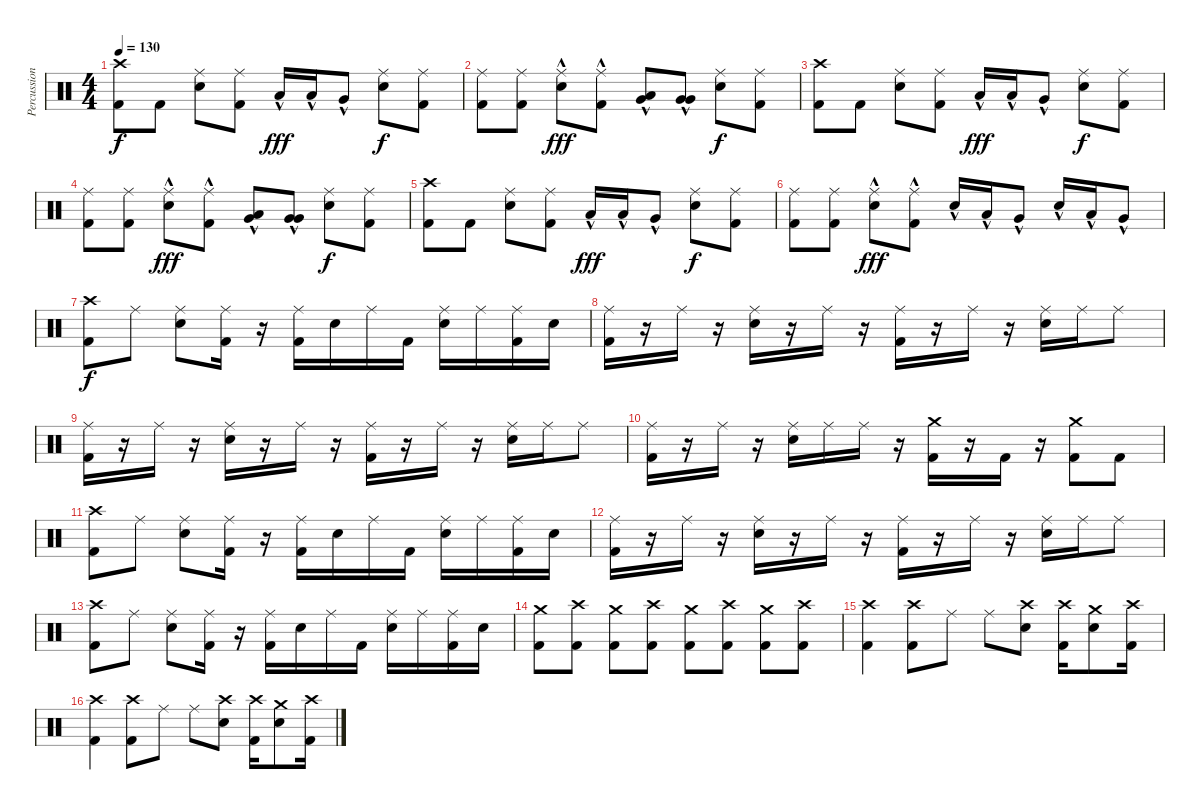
\track ("Percussion" "Percussion") {instrument percussion}
\staff {score}
\articulation defaults
\ts (4 4)
\tempo 130
\clef neutral
\ks c
("Crash high (hit)" "Kick (hit) 2").8{dy f} "Kick (hit) 2".8 ("Ride (middle)" "Snare (hit) 2").8 ("Ride (middle)" "Kick (hit) 2").8 "Low Tom (hit)"{hac}.16{dy fff} "Low Tom (hit)"{hac}.16 "Very Low Tom (hit)"{hac}.8 ("Ride (middle)" "Snare (hit) 2").8{dy f} ("Ride (middle)" "Kick (hit) 2").8 |
("Ride (middle)" "Kick (hit) 2").8 ("Ride (middle)" "Kick (hit) 2").8 ("Ride (middle)" "Snare (hit) 2"{hac}).8{dy fff} ("Ride (middle)" "Kick (hit) 2"{hac}).8 ("Very Low Tom (hit)" "Low Tom (hit)"{hac}).8 ("Very Low Tom (hit)" "Very Low Tom (hit)"{hac}).8 ("Ride (middle)" "Snare (hit) 2").8{dy f} ("Ride (middle)" "Kick (hit) 2").8 |
("Crash high (hit)" "Kick (hit) 2").8 "Kick (hit) 2".8 ("Ride (middle)" "Snare (hit) 2").8 ("Ride (middle)" "Kick (hit) 2").8 "Low Tom (hit)"{hac}.16{dy fff} "Low Tom (hit)"{hac}.16 "Very Low Tom (hit)"{hac}.8 ("Ride (middle)" "Snare (hit) 2").8{dy f} ("Ride (middle)" "Kick (hit) 2").8 |
("Ride (middle)" "Kick (hit) 2").8 ("Ride (middle)" "Kick (hit) 2").8 ("Ride (middle)" "Snare (hit) 2"{hac}).8{dy fff} ("Ride (middle)" "Kick (hit) 2"{hac}).8 ("Very Low Tom (hit)" "Low Tom (hit)"{hac}).8 ("Very Low Tom (hit)" "Very Low Tom (hit)"{hac}).8 ("Ride (middle)" "Snare (hit) 2").8{dy f} ("Ride (middle)" "Kick (hit) 2").8 |
("Crash high (hit)" "Kick (hit) 2").8 "Kick (hit) 2".8 ("Ride (middle)" "Snare (hit) 2").8 ("Ride (middle)" "Kick (hit) 2").8 "Low Tom (hit)"{hac}.16{dy fff} "Low Tom (hit)"{hac}.16 "Very Low Tom (hit)"{hac}.8 ("Ride (middle)" "Snare (hit) 2").8{dy f} ("Ride (middle)" "Kick (hit) 2").8 |
("Ride (middle)" "Kick (hit) 2").8 ("Ride (middle)" "Kick (hit) 2").8 ("Ride (middle)" "Snare (hit) 2"{hac}).8{dy fff} ("Ride (middle)" "Kick (hit) 2"{hac}).8 "Snare (hit) 2"{hac}.16 "Low Tom (hit)"{hac}.16 "Very Low Tom (hit)"{hac}.8 "Snare (hit) 2"{hac}.16 "Low Tom (hit)"{hac}.16 "Very Low Tom (hit)"{hac}.8 |
("Kick (hit) 2" "Crash high (hit)").8{dy f} "Ride (middle)".8 ("Snare (hit) 2" "Ride (middle)").8 ("Kick (hit) 2" "Ride (middle)").16 r.16 ("Kick (hit) 2" "Ride (middle)").16 "Snare (hit) 2".16 "Ride (middle)".16 "Kick (hit) 2".16 ("Snare (hit) 2" "Ride (middle)").16 "Ride (middle)".16 ("Kick (hit) 2" "Ride (middle)").16 "Snare (hit) 2".16 |
("Kick (hit) 2" "Ride (middle)").16 r.16 "Ride (middle)".16 r.16 ("Snare (hit) 2" "Ride (middle)").16 r.16 "Ride (middle)".16 r.16 ("Kick (hit) 2" "Ride (middle)").16 r.16 "Ride (middle)".16 r.16 ("Snare (hit) 2" "Ride (middle)").16 "Ride (middle)".16 "Ride (middle)".8 |
("Kick (hit) 2" "Ride (middle)").16 r.16 "Ride (middle)".16 r.16 ("Snare (hit) 2" "Ride (middle)").16 r.16 "Ride (middle)".16 r.16 ("Kick (hit) 2" "Ride (middle)").16 r.16 "Ride (middle)".16 r.16 ("Snare (hit) 2" "Ride (middle)").16 "Ride (middle)".16 "Ride (middle)".8 |
("Kick (hit) 2" "Ride (middle)").16 r.16 "Ride (middle)".16 r.16 ("Snare (hit) 2" "Ride (middle)").16 "Ride (middle)".16 "Ride (middle)".16 r.16 ("Kick (hit) 2" "Crash medium (hit)").16 r.16 "Kick (hit) 2".16 r.16 ("Kick (hit) 2" "Crash medium (hit)").8 "Kick (hit) 2".8 |
("Kick (hit) 2" "Crash high (hit)").8 "Ride (middle)".8 ("Snare (hit) 2" "Ride (middle)").8 ("Kick (hit) 2" "Ride (middle)").16 r.16 ("Kick (hit) 2" "Ride (middle)").16 "Snare (hit) 2".16 "Ride (middle)".16 "Kick (hit) 2".16 ("Snare (hit) 2" "Ride (middle)").16 "Ride (middle)".16 ("Kick (hit) 2" "Ride (middle)").16 "Snare (hit) 2".16 |
("Kick (hit) 2" "Ride (middle)").16 r.16 "Ride (middle)".16 r.16 ("Snare (hit) 2" "Ride (middle)").16 r.16 "Ride (middle)".16 r.16 ("Kick (hit) 2" "Ride (middle)").16 r.16 "Ride (middle)".16 r.16 ("Snare (hit) 2" "Ride (middle)").16 "Ride (middle)".16 "Ride (middle)".8 |
("Kick (hit) 2" "Crash high (hit)").8 "Ride (middle)".8 ("Snare (hit) 2" "Ride (middle)").8 ("Kick (hit) 2" "Ride (middle)").16 r.16 ("Kick (hit) 2" "Ride (middle)").16 "Snare (hit) 2".16 "Ride (middle)".16 "Kick (hit) 2".16 ("Snare (hit) 2" "Ride (middle)").16 "Ride (middle)".16 ("Kick (hit) 2" "Ride (middle)").16 "Snare (hit) 2".16 |
("Crash medium (hit)" "Kick (hit) 2").8 ("Crash high (hit)" "Kick (hit) 2").8 ("Crash medium (hit)" "Kick (hit) 2").8 ("Crash high (hit)" "Kick (hit) 2").8 ("Crash medium (hit)" "Kick (hit) 2").8 ("Crash high (hit)" "Kick (hit) 2").8 ("Crash medium (hit)" "Kick (hit) 2").8 ("Crash high (hit)" "Kick (hit) 2").8 |
("Crash high (hit)" "Kick (hit) 2").4 ("Crash high (hit)" "Kick (hit) 2").8 "Ride (middle)".8 "Ride (middle)".8 ("Crash high (hit)" "Snare (hit) 2").8 ("Crash high (hit)" "Kick (hit) 2").16 ("Crash medium (hit)" "Snare (hit) 2").8 ("Crash high (hit)" "Kick (hit) 2").16 |
("Crash high (hit)" "Kick (hit) 2").4 ("Crash high (hit)" "Kick (hit) 2").8 "Ride (middle)".8 "Ride (middle)".8 ("Crash high (hit)" "Snare (hit) 2").8 ("Crash high (hit)" "Kick (hit) 2").16 ("Crash medium (hit)" "Snare (hit) 2").8 ("Crash high (hit)" "Kick (hit) 2").16
